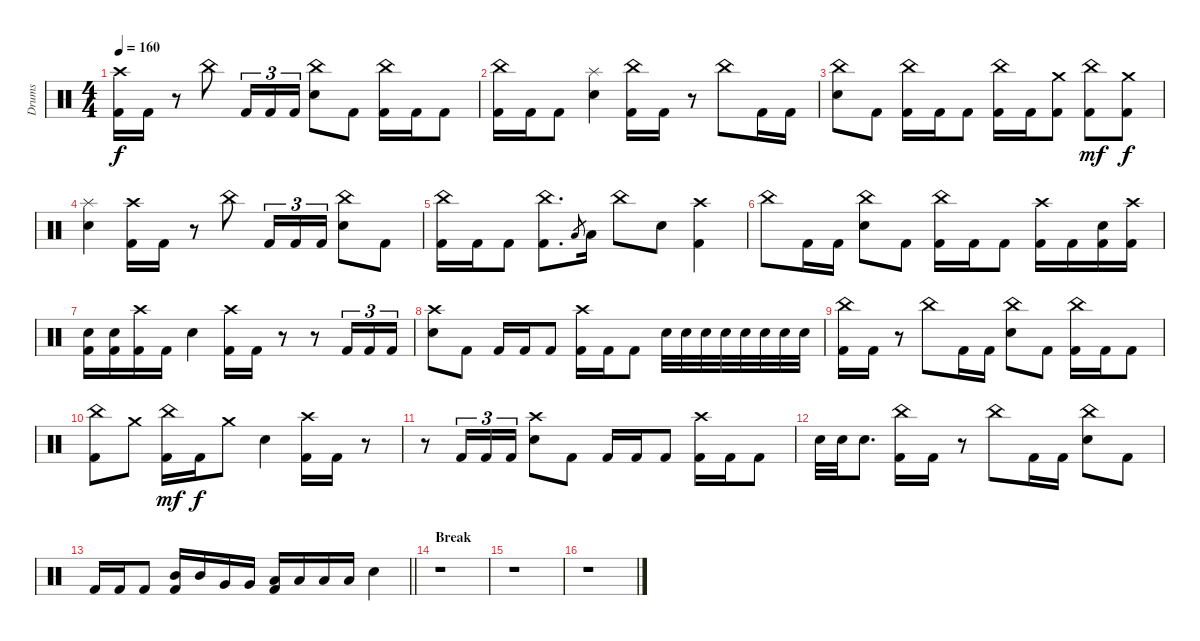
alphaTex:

\track ("Drums" "Drums") {instrument percussion}
\staff {score}
\articulation defaults
\ts (4 4)
\tempo 160
\clef neutral
\ks c
("Crash high (hit)" "Kick (hit) 2").16{dy f} "Kick (hit) 2".16 r.8 "China (hit)".8 "Kick (hit) 2".16{tu (3 2)} "Kick (hit) 2".16{tu (3 2)} "Kick (hit) 2".16{tu (3 2)} ("China (hit)" "Electric Snare (hit)").8 "Kick (hit) 2".8 ("China (hit)" "Kick (hit) 2").16 "Kick (hit) 2".16 "Kick (hit) 2".8 |
("China (hit)" "Kick (hit) 2").16 "Kick (hit) 2".16 "Kick (hit) 2".8 ("Splash (hit)" "Electric Snare (hit)").4 ("China (hit)" "Kick (hit) 2").16 "Kick (hit) 2".16 r.8 "China (hit)".8 "Kick (hit) 2".16 "Kick (hit) 2".16 |
("China (hit)" "Electric Snare (hit)").8 "Kick (hit) 2".8 ("China (hit)" "Kick (hit) 2").16 "Kick (hit) 2".16 "Kick (hit) 2".8 ("China (hit)" "Kick (hit) 2").16 "Kick (hit) 2".16 ("Crash medium (hit)" "Kick (hit) 2").8 ("China (hit)" "Kick (hit) 2").8{dy mf} ("Crash medium (hit)" "Kick (hit) 2").8{dy f} |
("Splash (hit)" "Electric Snare (hit)").4 ("Crash high (hit)" "Kick (hit) 2").16 "Kick (hit) 2".16 r.8 "China (hit)".8 "Kick (hit) 2".16{tu (3 2)} "Kick (hit) 2".16{tu (3 2)} "Kick (hit) 2".16{tu (3 2)} ("China (hit)" "Electric Snare (hit)").8 "Kick (hit) 2".8 |
("China (hit)" "Kick (hit) 2").16 "Kick (hit) 2".16 "Kick (hit) 2".8 ("China (hit)" "Kick (hit) 2").8{d} "Low Tom (hit)".8{gr} "Low Floor Tom (hit)".16 "China (hit)".8 "Electric Snare (hit)".8 ("Crash high (hit)" "Kick (hit) 2").4 |
"China (hit)".8 "Kick (hit) 2".16 "Kick (hit) 2".16 ("China (hit)" "Electric Snare (hit)").8 "Kick (hit) 2".8 ("China (hit)" "Kick (hit) 2").16 "Kick (hit) 2".16 "Kick (hit) 2".8 ("Crash high (hit)" "Kick (hit) 2").16 "Kick (hit) 2".16 ("Electric Snare (hit)" "Kick (hit) 2").16 ("Crash high (hit)" "Kick (hit) 2").16 |
("Electric Snare (hit)" "Kick (hit) 2").16 ("Electric Snare (hit)" "Kick (hit) 2").16 ("Crash high (hit)" "Kick (hit) 2").16 "Kick (hit) 2".16 "Electric Snare (hit)".4 ("Crash high (hit)" "Kick (hit) 2").16 "Kick (hit) 2".16 r.8 r.8 "Kick (hit) 2".16{tu (3 2)} "Kick (hit) 2".16{tu (3 2)} "Kick (hit) 2".16{tu (3 2)} |
("Crash high (hit)" "Electric Snare (hit)").8 "Kick (hit) 2".8 "Kick (hit) 2".16 "Kick (hit) 2".16 "Kick (hit) 2".8 ("Crash high (hit)" "Kick (hit) 2").16 "Kick (hit) 2".16 "Kick (hit) 2".8 "Electric Snare (hit)".32 "Electric Snare (hit)".32 "Electric Snare (hit)".32 "Electric Snare (hit)".32 "Electric Snare (hit)".32 "Electric Snare (hit)".32 "Electric Snare (hit)".32 "Electric Snare (hit)".32 |
("China (hit)" "Kick (hit) 2").16 "Kick (hit) 2".16 r.8 "China (hit)".8 "Kick (hit) 2".16 "Kick (hit) 2".16 ("China (hit)" "Electric Snare (hit)").8 "Kick (hit) 2".8 ("China (hit)" "Kick (hit) 2").16 "Kick (hit) 2".16 "Kick (hit) 2".8 |
("China (hit)" "Kick (hit) 2").8 "Crash medium (hit)".8 ("China (hit)" "Kick (hit) 2").16{dy mf} "Kick (hit) 2".16{dy f} "Crash medium (hit)".8 "Electric Snare (hit)".4 ("Crash high (hit)" "Kick (hit) 2").16 "Kick (hit) 2".16 r.8 |
r.8 "Kick (hit) 2".16{tu (3 2)} "Kick (hit) 2".16{tu (3 2)} "Kick (hit) 2".16{tu (3 2)} ("Crash high (hit)" "Electric Snare (hit)").8 "Kick (hit) 2".8 "Kick (hit) 2".16 "Kick (hit) 2".16 "Kick (hit) 2".8 ("Crash high (hit)" "Kick (hit) 2").16 "Kick (hit) 2".16 "Kick (hit) 2".8 |
"Electric Snare (hit)".32 "Electric Snare (hit)".32 "Electric Snare (hit)".8{d} ("China (hit)" "Kick (hit) 2").16 "Kick (hit) 2".16 r.8 "China (hit)".8 "Kick (hit) 2".16 "Kick (hit) 2".16 ("China (hit)" "Electric Snare (hit)").8 "Kick (hit) 2".8 |
\barLineRight lightlight "Kick (hit) 2".16 "Kick (hit) 2".16 "Kick (hit) 2".8
("Mid Tom (hit)" "Kick (hit) 2").16 "Mid Tom (hit)".16 "Very Low Tom (hit)".16 "Very Low Tom (hit)".16 ("Low Tom (hit)" "Kick (hit) 2").16 "Low Tom (hit)".16 "Low Floor Tom (hit)".16 "Low Floor Tom (hit)".16 "Electric Snare (hit)".4 |
\section ("" "Break")
r.1 |
r.1 |
r.1
